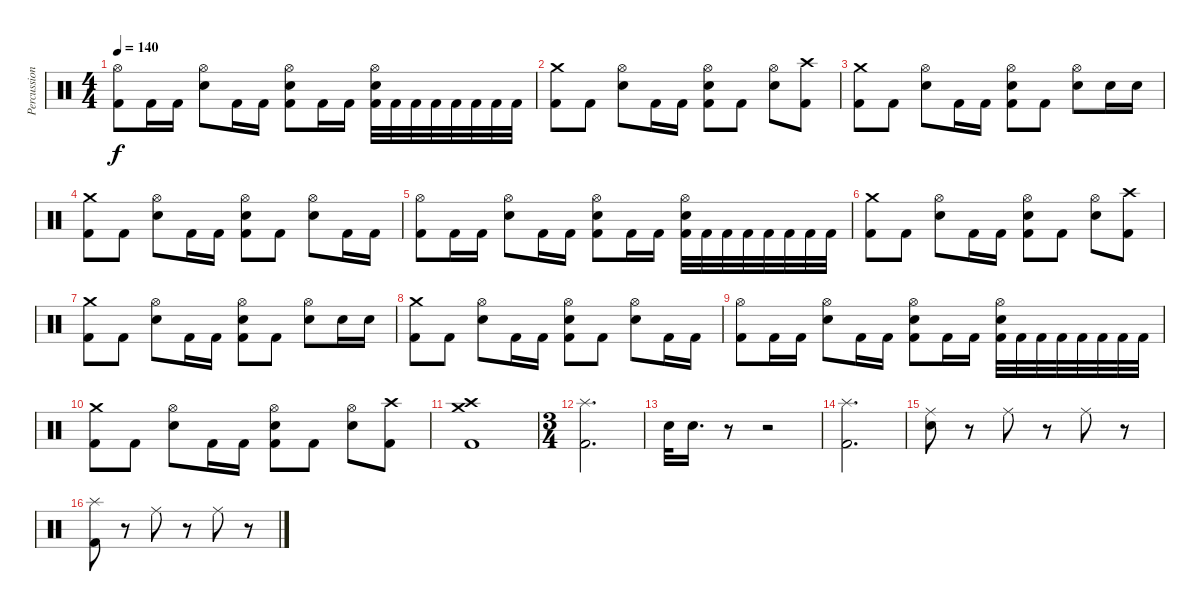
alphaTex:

\track ("Percussion" "Percussion") {instrument percussion}
\staff {score}
\articulation defaults
\ts (4 4)
\tempo 140
\clef neutral
\ks c
("Hi-Hat (open)" "Kick (hit) 2").8{dy f} "Kick (hit) 2".16 "Kick (hit) 2".16 ("Hi-Hat (open)" "Electric Snare (hit)").8 "Kick (hit) 2".16 "Kick (hit) 2".16 ("Hi-Hat (open)" "Electric Snare (hit)" "Kick (hit) 2").8 "Kick (hit) 2".16 "Kick (hit) 2".16 ("Hi-Hat (open)" "Electric Snare (hit)" "Kick (hit) 2").32 "Kick (hit) 2".32 "Kick (hit) 2".32 "Kick (hit) 2".32 "Kick (hit) 2".32 "Kick (hit) 2".32 "Kick (hit) 2".32 "Kick (hit) 2".32 |
("Crash medium (hit)" "Kick (hit) 2").8 "Kick (hit) 2".8 ("Hi-Hat (open)" "Electric Snare (hit)").8 "Kick (hit) 2".16 "Kick (hit) 2".16 ("Hi-Hat (open)" "Electric Snare (hit)" "Kick (hit) 2").8 "Kick (hit) 2".8 ("Hi-Hat (open)" "Electric Snare (hit)").8 ("Crash high (hit)" "Kick (hit) 2").8 |
("Crash medium (hit)" "Kick (hit) 2").8 "Kick (hit) 2".8 ("Hi-Hat (open)" "Electric Snare (hit)").8 "Kick (hit) 2".16 "Kick (hit) 2".16 ("Hi-Hat (open)" "Electric Snare (hit)" "Kick (hit) 2").8 "Kick (hit) 2".8 ("Hi-Hat (open)" "Electric Snare (hit)").8 "Electric Snare (hit)".16 "Electric Snare (hit)".16 |
("Crash medium (hit)" "Kick (hit) 2").8 "Kick (hit) 2".8 ("Hi-Hat (open)" "Electric Snare (hit)").8 "Kick (hit) 2".16 "Kick (hit) 2".16 ("Hi-Hat (open)" "Electric Snare (hit)" "Kick (hit) 2").8 "Kick (hit) 2".8 ("Hi-Hat (open)" "Electric Snare (hit)").8 "Kick (hit) 2".16 "Kick (hit) 2".16 |
("Hi-Hat (open)" "Kick (hit) 2").8 "Kick (hit) 2".16 "Kick (hit) 2".16 ("Hi-Hat (open)" "Electric Snare (hit)").8 "Kick (hit) 2".16 "Kick (hit) 2".16 ("Hi-Hat (open)" "Electric Snare (hit)" "Kick (hit) 2").8 "Kick (hit) 2".16 "Kick (hit) 2".16 ("Hi-Hat (open)" "Electric Snare (hit)" "Kick (hit) 2").32 "Kick (hit) 2".32 "Kick (hit) 2".32 "Kick (hit) 2".32 "Kick (hit) 2".32 "Kick (hit) 2".32 "Kick (hit) 2".32 "Kick (hit) 2".32 |
("Crash medium (hit)" "Kick (hit) 2").8 "Kick (hit) 2".8 ("Hi-Hat (open)" "Electric Snare (hit)").8 "Kick (hit) 2".16 "Kick (hit) 2".16 ("Hi-Hat (open)" "Electric Snare (hit)" "Kick (hit) 2").8 "Kick (hit) 2".8 ("Hi-Hat (open)" "Electric Snare (hit)").8 ("Crash high (hit)" "Kick (hit) 2").8 |
("Crash medium (hit)" "Kick (hit) 2").8 "Kick (hit) 2".8 ("Hi-Hat (open)" "Electric Snare (hit)").8 "Kick (hit) 2".16 "Kick (hit) 2".16 ("Hi-Hat (open)" "Electric Snare (hit)" "Kick (hit) 2").8 "Kick (hit) 2".8 ("Hi-Hat (open)" "Electric Snare (hit)").8 "Electric Snare (hit)".16 "Electric Snare (hit)".16 |
("Crash medium (hit)" "Kick (hit) 2").8 "Kick (hit) 2".8 ("Hi-Hat (open)" "Electric Snare (hit)").8 "Kick (hit) 2".16 "Kick (hit) 2".16 ("Hi-Hat (open)" "Electric Snare (hit)" "Kick (hit) 2").8 "Kick (hit) 2".8 ("Hi-Hat (open)" "Electric Snare (hit)").8 "Kick (hit) 2".16 "Kick (hit) 2".16 |
("Hi-Hat (open)" "Kick (hit) 2").8 "Kick (hit) 2".16 "Kick (hit) 2".16 ("Hi-Hat (open)" "Electric Snare (hit)").8 "Kick (hit) 2".16 "Kick (hit) 2".16 ("Hi-Hat (open)" "Electric Snare (hit)" "Kick (hit) 2").8 "Kick (hit) 2".16 "Kick (hit) 2".16 ("Hi-Hat (open)" "Electric Snare (hit)" "Kick (hit) 2").32 "Kick (hit) 2".32 "Kick (hit) 2".32 "Kick (hit) 2".32 "Kick (hit) 2".32 "Kick (hit) 2".32 "Kick (hit) 2".32 "Kick (hit) 2".32 |
("Crash medium (hit)" "Kick (hit) 2").8 "Kick (hit) 2".8 ("Hi-Hat (open)" "Electric Snare (hit)").8 "Kick (hit) 2".16 "Kick (hit) 2".16 ("Hi-Hat (open)" "Electric Snare (hit)" "Kick (hit) 2").8 "Kick (hit) 2".8 ("Hi-Hat (open)" "Electric Snare (hit)").8 ("Crash high (hit)" "Kick (hit) 2").8 |
("Crash medium (hit)" "Crash high (hit)" "Kick (hit) 2").1 |
\ts (3 4)
("Splash (hit)" "Kick (hit) 2").2{d} |
"Electric Snare (hit)".32 "Electric Snare (hit)".16{d} r.8 r.2 |
("Splash (hit)" "Kick (hit) 2").2{d} |
("Ride (middle)" "Electric Snare (hit)").8 r.8 "Ride (middle)".8 r.8 "Ride (middle)".8 r.8 |
("Splash (hit)" "Kick (hit) 2").8 r.8 "Ride (middle)".8 r.8 "Ride (middle)".8 r.8
